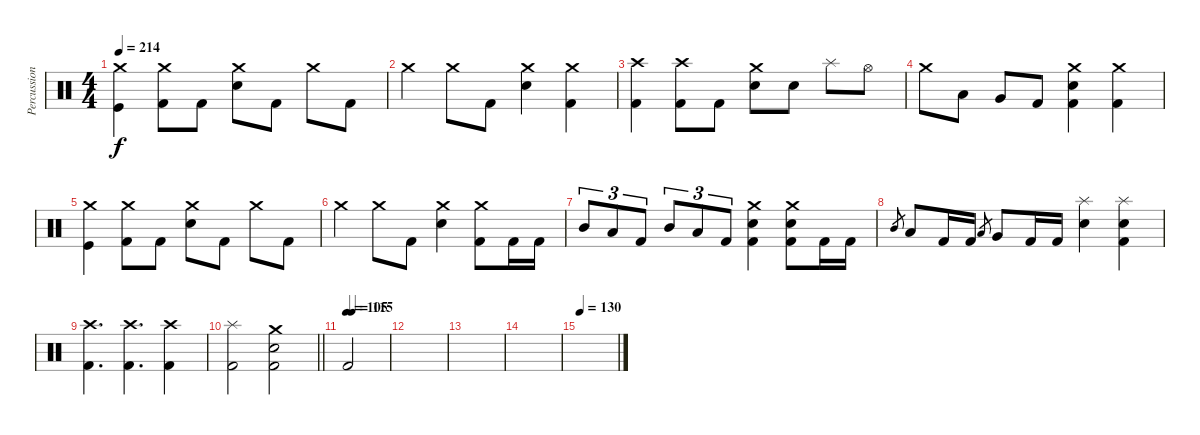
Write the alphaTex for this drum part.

\track ("Percussion" "Percussion") {instrument percussion}
\staff {score}
\articulation defaults
\ts (4 4)
\tempo 214
\clef neutral
\ks c
("Crash medium (hit)" "Kick (hit)").4{dy f} ("Crash medium (hit)" "Kick (hit) 2").8 "Kick (hit) 2".8 ("Crash medium (hit)" "Electric Snare (hit)").8 "Kick (hit) 2".8 "Crash medium (hit)".8 "Kick (hit) 2".8 |
"Crash medium (hit)".4 "Crash medium (hit)".8 "Kick (hit) 2".8 ("Crash medium (hit)" "Electric Snare (hit)").4 ("Crash medium (hit)" "Kick (hit) 2").4 |
("Crash high (hit)" "Kick (hit) 2").4 ("Crash high (hit)" "Kick (hit) 2").8 "Kick (hit) 2".8 ("Crash medium (hit)" "Electric Snare (hit)").8 "Electric Snare (hit)".8 "Splash (hit)".8 "Hi-Hat (open)".8 |
"Crash medium (hit)".8 "Low Tom (hit)".8 "Very Low Tom (hit)".8 "Kick (hit) 2".8 ("Crash medium (hit)" "Electric Snare (hit)" "Kick (hit) 2").4 ("Crash medium (hit)" "Kick (hit) 2").4 |
("Crash medium (hit)" "Kick (hit)").4 ("Crash medium (hit)" "Kick (hit) 2").8 "Kick (hit) 2".8 ("Crash medium (hit)" "Electric Snare (hit)").8 "Kick (hit) 2".8 "Crash medium (hit)".8 "Kick (hit) 2".8 |
"Crash medium (hit)".4 "Crash medium (hit)".8 "Kick (hit) 2".8 ("Crash medium (hit)" "Electric Snare (hit)").4 ("Crash medium (hit)" "Kick (hit) 2").8 "Kick (hit) 2".16 "Kick (hit) 2".16 |
"Mid Tom (hit)".8{tu (3 2)} "Low Tom (hit)".8{tu (3 2)} "Kick (hit) 2".8{tu (3 2)} "Mid Tom (hit)".8{tu (3 2)} "Low Tom (hit)".8{tu (3 2)} "Kick (hit) 2".8{tu (3 2)} ("Crash medium (hit)" "Electric Snare (hit)" "Kick (hit) 2").4 ("Crash medium (hit)" "Electric Snare (hit)" "Kick (hit) 2").8 "Kick (hit) 2".16 "Kick (hit) 2".16 |
"Mid Tom (hit)".8{gr} "Low Tom (hit)".8 "Kick (hit) 2".16 "Kick (hit) 2".16 "Low Tom (hit)".8{gr} "Very Low Tom (hit)".8 "Kick (hit) 2".16 "Kick (hit) 2".16 ("Splash (hit)" "Electric Snare (hit)").4 ("Splash (hit)" "Electric Snare (hit)" "Kick (hit) 2").4 |
("Crash high (hit)" "Kick (hit) 2").4{d} ("Crash high (hit)" "Kick (hit) 2").4{d} ("Crash high (hit)" "Kick (hit) 2").4 |
\barLineRight lightlight
("Splash (hit)" "Kick (hit) 2").2 ("Crash medium (hit)" "Electric Snare (hit)" "Kick (hit) 2").2 |
\section ("" "")
\tempo 105
\tempo (115 0.125)
"Kick (hit) 2".2 |
|
|
|
\tempo 130
